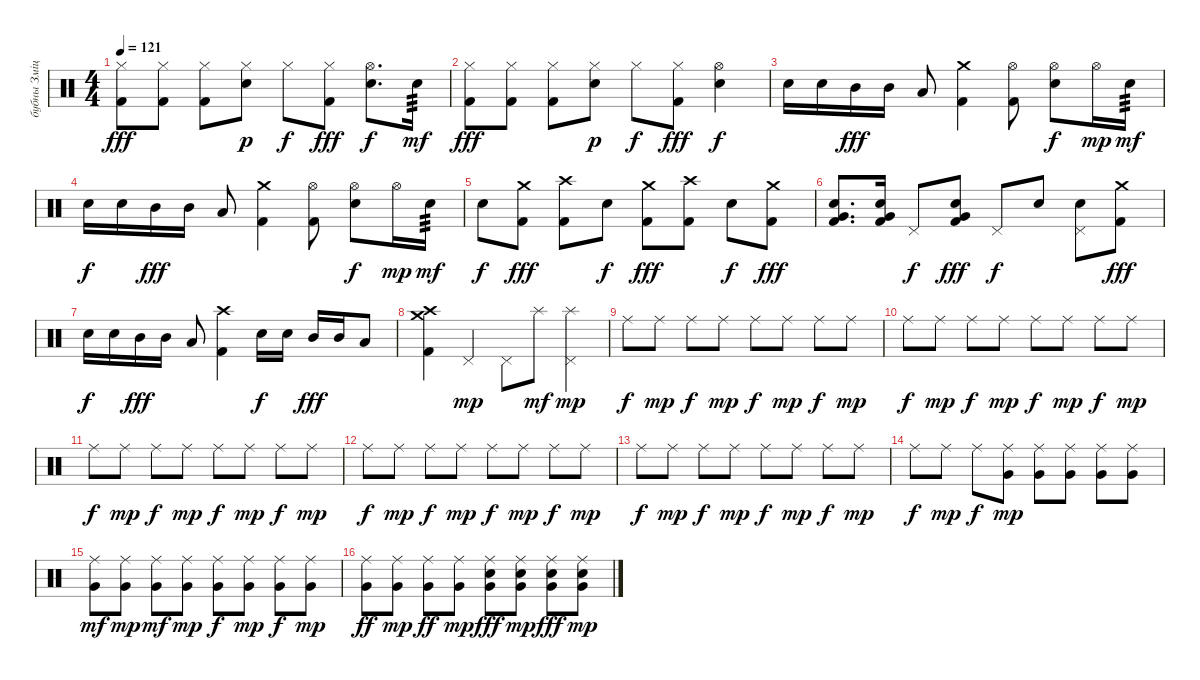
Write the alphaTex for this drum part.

\track ("бубны Змiцер " "бубны Змiц") {instrument percussion}
\staff {score}
\articulation defaults
\ts (4 4)
\tempo 121
\clef neutral
\ks c
("Hi-Hat (closed)" "Kick (hit) 2").8{dy fff} ("Hi-Hat (closed)" "Kick (hit) 2").8 ("Hi-Hat (closed)" "Kick (hit) 2").8 ("Hi-Hat (closed)" "Electric Snare (hit)").8{dy p} "Hi-Hat (closed)".8{dy f} ("Hi-Hat (closed)" "Kick (hit) 2").8{dy fff} ("Hi-Hat (open)" "Electric Snare (hit)").8{d dy f} "Electric Snare (hit)".16{tp 3 dy mf} |
("Hi-Hat (closed)" "Kick (hit) 2").8{dy fff} ("Hi-Hat (closed)" "Kick (hit) 2").8 ("Hi-Hat (closed)" "Kick (hit) 2").8 ("Hi-Hat (closed)" "Electric Snare (hit)").8{dy p} "Hi-Hat (closed)".8{dy f} ("Hi-Hat (closed)" "Kick (hit) 2").8{dy fff} ("Hi-Hat (open)" "Electric Snare (hit)").4{dy f} |
"Electric Snare (hit)".16 "Electric Snare (hit)".16 "Mid Tom (hit)".16{dy fff} "Mid Tom (hit)".16 "Low Tom (hit)".8 ("Crash medium (hit)" "Kick (hit) 2").4 ("Hi-Hat (open)" "Kick (hit) 2").8 ("Hi-Hat (open)" "Electric Snare (hit)").8{dy f} "Hi-Hat (open)".16{dy mp} "Electric Snare (hit)".16{tp 3 dy mf} |
"Electric Snare (hit)".16{dy f} "Electric Snare (hit)".16 "Mid Tom (hit)".16{dy fff} "Mid Tom (hit)".16 "Low Tom (hit)".8 ("Crash medium (hit)" "Kick (hit) 2").4 ("Hi-Hat (open)" "Kick (hit) 2").8 ("Hi-Hat (open)" "Electric Snare (hit)").8{dy f} "Hi-Hat (open)".16{dy mp} "Electric Snare (hit)".16{tp 3 dy mf} |
"Electric Snare (hit)".8{dy f} ("Crash medium (hit)" "Kick (hit) 2").8{dy fff} ("Crash high (hit)" "Kick (hit) 2").8 "Electric Snare (hit)".8{dy f} ("Crash medium (hit)" "Kick (hit) 2").8{dy fff} ("Crash high (hit)" "Kick (hit) 2").8 "Electric Snare (hit)".8{dy f} ("Crash medium (hit)" "Kick (hit) 2").8{dy fff} |
("Very Low Tom (hit)" "Electric Snare (hit)" "Kick (hit) 2").8{d} ("Very Low Tom (hit)" "Electric Snare (hit)" "Kick (hit) 2").16 "Pedal Hi-Hat (hit)".8{dy f} ("Very Low Tom (hit)" "Electric Snare (hit)" "Kick (hit) 2").8{dy fff} "Pedal Hi-Hat (hit)".8{dy f} "Electric Snare (hit)".8 ("Electric Snare (hit)" "Pedal Hi-Hat (hit)").8 ("Crash medium (hit)" "Kick (hit) 2").8{dy fff} |
"Electric Snare (hit)".16{dy f} "Electric Snare (hit)".16 "Mid Tom (hit)".16{dy fff} "Mid Tom (hit)".16 "Low Tom (hit)".8 ("Crash high (hit)" "Kick (hit) 2").4 "Electric Snare (hit)".16{dy f} "Electric Snare (hit)".16 "Mid Tom (hit)".16{dy fff} "Mid Tom (hit)".16 "Low Tom (hit)".8 |
("Crash high (hit)" "Crash medium (hit)" "Kick (hit) 2").4 "Pedal Hi-Hat (hit)".4{dy mp} "Pedal Hi-Hat (hit)".8 "Splash (hit)".8{dy mf} ("Splash (hit)" "Pedal Hi-Hat (hit)").4{dy mp} |
"Ride (middle)".8{dy f} "Ride (middle)".8{dy mp} "Ride (middle)".8{dy f} "Ride (middle)".8{dy mp} "Ride (middle)".8{dy f} "Ride (middle)".8{dy mp} "Ride (middle)".8{dy f} "Ride (middle)".8{dy mp} |
"Ride (middle)".8{dy f} "Ride (middle)".8{dy mp} "Ride (middle)".8{dy f} "Ride (middle)".8{dy mp} "Ride (middle)".8{dy f} "Ride (middle)".8{dy mp} "Ride (middle)".8{dy f} "Ride (middle)".8{dy mp} |
"Ride (middle)".8{dy f} "Ride (middle)".8{dy mp} "Ride (middle)".8{dy f} "Ride (middle)".8{dy mp} "Ride (middle)".8{dy f} "Ride (middle)".8{dy mp} "Ride (middle)".8{dy f} "Ride (middle)".8{dy mp} |
"Ride (middle)".8{dy f} "Ride (middle)".8{dy mp} "Ride (middle)".8{dy f} "Ride (middle)".8{dy mp} "Ride (middle)".8{dy f} "Ride (middle)".8{dy mp} "Ride (middle)".8{dy f} "Ride (middle)".8{dy mp} |
"Ride (middle)".8{dy f} "Ride (middle)".8{dy mp} "Ride (middle)".8{dy f} "Ride (middle)".8{dy mp} "Ride (middle)".8{dy f} "Ride (middle)".8{dy mp} "Ride (middle)".8{dy f} "Ride (middle)".8{dy mp} |
"Ride (middle)".8{dy f} "Ride (middle)".8{dy mp} "Ride (middle)".8{dy f} ("Very Low Tom (hit)" "Ride (middle)").8{dy mp} ("Very Low Tom (hit)" "Ride (middle)").8 ("Very Low Tom (hit)" "Ride (middle)").8 ("Very Low Tom (hit)" "Ride (middle)").8 ("Very Low Tom (hit)" "Ride (middle)").8 |
("Very Low Tom (hit)" "Ride (middle)").8{dy mf} ("Very Low Tom (hit)" "Ride (middle)").8{dy mp} ("Very Low Tom (hit)" "Ride (middle)").8{dy mf} ("Very Low Tom (hit)" "Ride (middle)").8{dy mp} ("Very Low Tom (hit)" "Ride (middle)").8{dy f} ("Very Low Tom (hit)" "Ride (middle)").8{dy mp} ("Very Low Tom (hit)" "Ride (middle)").8{dy f} ("Very Low Tom (hit)" "Ride (middle)").8{dy mp} |
("Very Low Tom (hit)" "Ride (middle)").8{dy ff} ("Very Low Tom (hit)" "Ride (middle)").8{dy mp} ("Very Low Tom (hit)" "Ride (middle)").8{dy ff} ("Very Low Tom (hit)" "Ride (middle)").8{dy mp} ("Electric Snare (hit)" "Very Low Tom (hit)" "Ride (middle)").8{dy fff} ("Electric Snare (hit)" "Very Low Tom (hit)" "Ride (middle)").8{dy mp} ("Electric Snare (hit)" "Very Low Tom (hit)" "Ride (middle)").8{dy fff} ("Electric Snare (hit)" "Very Low Tom (hit)" "Ride (middle)").8{dy mp}
